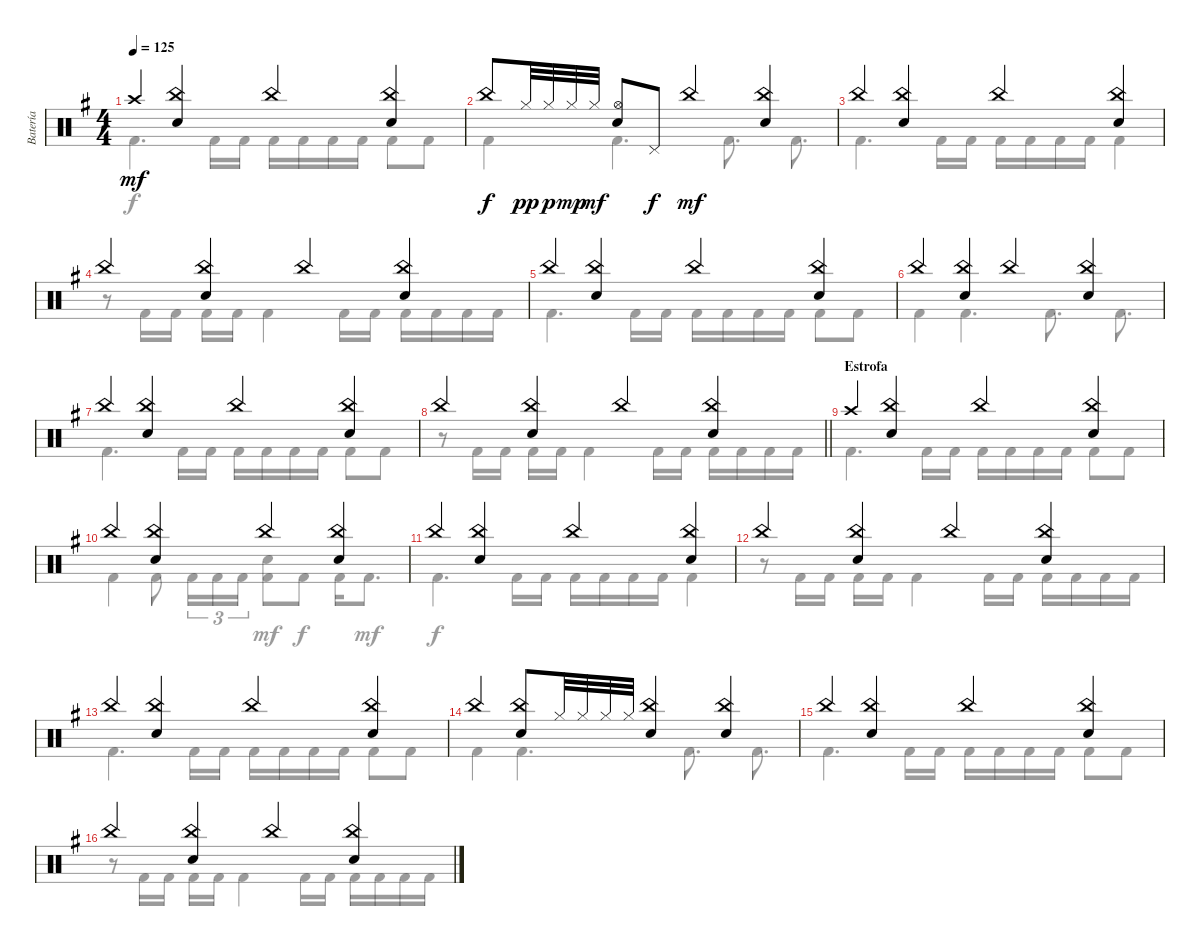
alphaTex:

\track ("Batería" "Batería") {instrument percussion}
\staff {score}
\articulation defaults
\voice
\ts (4 4)
\tempo 125
\clef neutral
\ks g "Crash high (hit)".4{dy mf volume 13}
("China (hit)" "Snare (hit) 2").4 "China (hit)".4 ("China (hit)" "Snare (hit) 2").4 |
"China (hit)".8{dy f} "Hi-Hat (closed)".32{dy pp} "Hi-Hat (closed)".32{dy p} "Hi-Hat (closed)".32{dy mp} "Hi-Hat (closed)".32{dy mf} ("Hi-Hat (open)" "Snare (hit) 2").8 "Pedal Hi-Hat (hit)".8{dy f} "China (hit)".4{dy mf} ("China (hit)" "Snare (hit) 2").4 |
"China (hit)".4 ("China (hit)" "Snare (hit) 2").4 "China (hit)".4 ("China (hit)" "Snare (hit) 2").4 |
"China (hit)".4 ("China (hit)" "Snare (hit) 2").4 "China (hit)".4 ("China (hit)" "Snare (hit) 2").4 |
"China (hit)".4 ("China (hit)" "Snare (hit) 2").4 "China (hit)".4 ("China (hit)" "Snare (hit) 2").4 |
"China (hit)".4 ("China (hit)" "Snare (hit) 2").4 "China (hit)".4 ("China (hit)" "Snare (hit) 2").4 |
"China (hit)".4 ("China (hit)" "Snare (hit) 2").4 "China (hit)".4 ("China (hit)" "Snare (hit) 2").4 |
\barLineRight lightlight "China (hit)".4
("China (hit)" "Snare (hit) 2").4 "China (hit)".4 ("China (hit)" "Snare (hit) 2").4 |
\section ("" "Estrofa")
"Crash high (hit)".4{volume 13} ("China (hit)" "Snare (hit) 2").4 "China (hit)".4 ("China (hit)" "Snare (hit) 2").4 |
"China (hit)".4 ("China (hit)" "Snare (hit) 2").4 "China (hit)".4 ("China (hit)" "Snare (hit) 2").4 |
"China (hit)".4 ("China (hit)" "Snare (hit) 2").4 "China (hit)".4 ("China (hit)" "Snare (hit) 2").4 |
"China (hit)".4 ("China (hit)" "Snare (hit) 2").4 "China (hit)".4 ("China (hit)" "Snare (hit) 2").4 |
"China (hit)".4 ("China (hit)" "Snare (hit) 2").4 "China (hit)".4 ("China (hit)" "Snare (hit) 2").4 |
"China (hit)".4 ("China (hit)" "Snare (hit) 2").8 "Hi-Hat (closed)".32 "Hi-Hat (closed)".32 "Hi-Hat (closed)".32 "Hi-Hat (closed)".32 ("China (hit)" "Snare (hit) 2").4 ("China (hit)" "Snare (hit) 2").4 |
"China (hit)".4 ("China (hit)" "Snare (hit) 2").4 "China (hit)".4 ("China (hit)" "Snare (hit) 2").4 |
"China (hit)".4 ("China (hit)" "Snare (hit) 2").4 "China (hit)".4 ("China (hit)" "Snare (hit) 2").4
\voice
\clef neutral
\ottava regular
\simile none
\ks g "Kick (hit) 2".4{d dy f} "Kick (hit) 2".16 "Kick (hit) 2".16 "Kick (hit) 2".16 "Kick (hit) 2".16 "Kick (hit) 2".16 "Kick (hit) 2".16 "Kick (hit) 2".8 "Kick (hit) 2".8
|
"Kick (hit) 2".4 "Kick (hit) 2".4{d} "Kick (hit) 2".8{d} "Kick (hit) 2".8{d} |
"Kick (hit) 2".4{d} "Kick (hit) 2".16 "Kick (hit) 2".16 "Kick (hit) 2".16 "Kick (hit) 2".16 "Kick (hit) 2".16 "Kick (hit) 2".16 "Kick (hit) 2".4 |
r.8 "Kick (hit) 2".16 "Kick (hit) 2".16 "Kick (hit) 2".16 "Kick (hit) 2".16 "Kick (hit) 2".4 "Kick (hit) 2".16 "Kick (hit) 2".16 "Kick (hit) 2".16 "Kick (hit) 2".16 "Kick (hit) 2".16 "Kick (hit) 2".16 |
"Kick (hit) 2".4{d} "Kick (hit) 2".16 "Kick (hit) 2".16 "Kick (hit) 2".16 "Kick (hit) 2".16 "Kick (hit) 2".16 "Kick (hit) 2".16 "Kick (hit) 2".8 "Kick (hit) 2".8 |
"Kick (hit) 2".4 "Kick (hit) 2".4{d} "Kick (hit) 2".8{d} "Kick (hit) 2".8{d} |
"Kick (hit) 2".4{d} "Kick (hit) 2".16 "Kick (hit) 2".16 "Kick (hit) 2".16 "Kick (hit) 2".16 "Kick (hit) 2".16 "Kick (hit) 2".16 "Kick (hit) 2".8 "Kick (hit) 2".8 |
\barLineRight lightlight
r.8 "Kick (hit) 2".16 "Kick (hit) 2".16 "Kick (hit) 2".16 "Kick (hit) 2".16 "Kick (hit) 2".4 "Kick (hit) 2".16 "Kick (hit) 2".16 "Kick (hit) 2".16 "Kick (hit) 2".16 "Kick (hit) 2".16 "Kick (hit) 2".16 |
"Kick (hit) 2".4{d} "Kick (hit) 2".16 "Kick (hit) 2".16 "Kick (hit) 2".16 "Kick (hit) 2".16 "Kick (hit) 2".16 "Kick (hit) 2".16 "Kick (hit) 2".8 "Kick (hit) 2".8 |
"Kick (hit) 2".4 "Kick (hit) 2".8 "Kick (hit) 2".16{tu (3 2)} "Kick (hit) 2".16{tu (3 2)} "Kick (hit) 2".16{tu (3 2)} ("Snare (hit) 2" "Kick (hit) 2").8{dy mf} "Kick (hit) 2".8{dy f} "Kick (hit) 2".16 "Kick (hit) 2".8{d dy mf} |
"Kick (hit) 2".4{d dy f} "Kick (hit) 2".16 "Kick (hit) 2".16 "Kick (hit) 2".16 "Kick (hit) 2".16 "Kick (hit) 2".16 "Kick (hit) 2".16 "Kick (hit) 2".4 |
r.8 "Kick (hit) 2".16 "Kick (hit) 2".16 "Kick (hit) 2".16 "Kick (hit) 2".16 "Kick (hit) 2".4 "Kick (hit) 2".16 "Kick (hit) 2".16 "Kick (hit) 2".16 "Kick (hit) 2".16 "Kick (hit) 2".16 "Kick (hit) 2".16 |
"Kick (hit) 2".4{d} "Kick (hit) 2".16 "Kick (hit) 2".16 "Kick (hit) 2".16 "Kick (hit) 2".16 "Kick (hit) 2".16 "Kick (hit) 2".16 "Kick (hit) 2".8 "Kick (hit) 2".8 |
"Kick (hit) 2".4 "Kick (hit) 2".4{d} "Kick (hit) 2".8{d} "Kick (hit) 2".8{d} |
"Kick (hit) 2".4{d} "Kick (hit) 2".16 "Kick (hit) 2".16 "Kick (hit) 2".16 "Kick (hit) 2".16 "Kick (hit) 2".16 "Kick (hit) 2".16 "Kick (hit) 2".8 "Kick (hit) 2".8 |
r.8 "Kick (hit) 2".16 "Kick (hit) 2".16 "Kick (hit) 2".16 "Kick (hit) 2".16 "Kick (hit) 2".4 "Kick (hit) 2".16 "Kick (hit) 2".16 "Kick (hit) 2".16 "Kick (hit) 2".16 "Kick (hit) 2".16 "Kick (hit) 2".16
